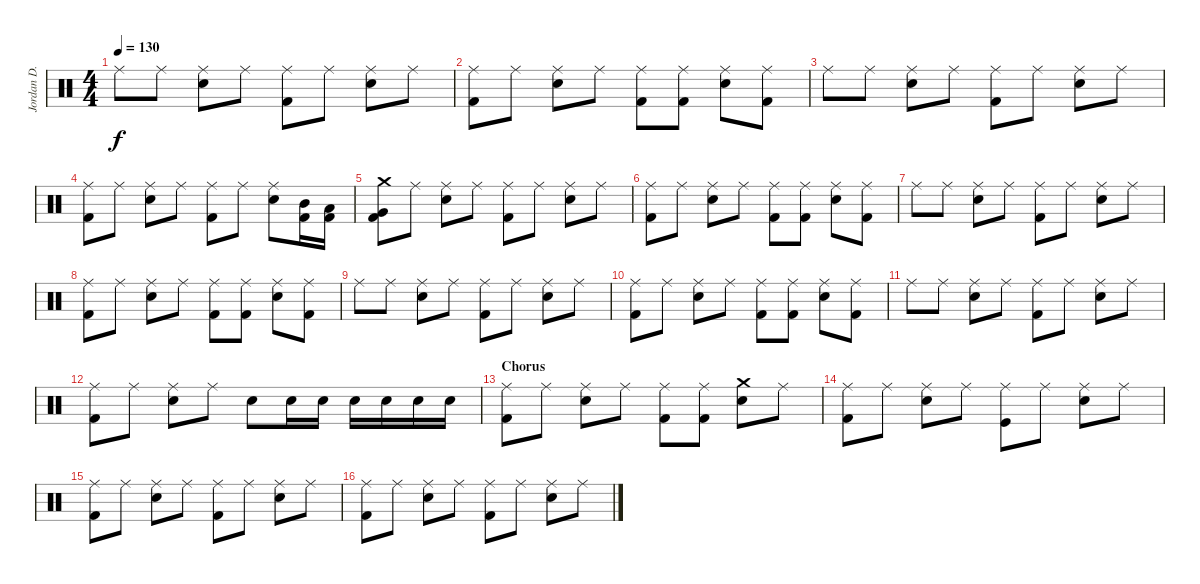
\track ("Jordan D. Samolesky" "Jordan D. ") {instrument percussion}
\staff {score}
\articulation defaults
\ts (4 4)
\tempo 130
\clef neutral
\ks c "Ride (middle)".8{dy f} "Ride (middle)".8
("Electric Snare (hit)" "Ride (middle)").8 "Ride (middle)".8 ("Ride (middle)" "Kick (hit) 2").8 "Ride (middle)".8 ("Electric Snare (hit)" "Ride (middle)").8 "Ride (middle)".8 |
("Ride (middle)" "Kick (hit) 2").8 "Ride (middle)".8 ("Electric Snare (hit)" "Ride (middle)").8 "Ride (middle)".8 ("Ride (middle)" "Kick (hit) 2").8 ("Ride (middle)" "Kick (hit) 2").8 ("Electric Snare (hit)" "Ride (middle)").8 ("Ride (middle)" "Kick (hit) 2").8 |
"Ride (middle)".8 "Ride (middle)".8 ("Electric Snare (hit)" "Ride (middle)").8 "Ride (middle)".8 ("Ride (middle)" "Kick (hit) 2").8 "Ride (middle)".8 ("Electric Snare (hit)" "Ride (middle)").8 "Ride (middle)".8 |
("Ride (middle)" "Kick (hit) 2").8 "Ride (middle)".8 ("Electric Snare (hit)" "Ride (middle)").8 "Ride (middle)".8 ("Ride (middle)" "Kick (hit) 2").8 "Ride (middle)".8 ("Electric Snare (hit)" "Ride (middle)").8 ("Mid Tom (hit)" "Kick (hit) 2").16 ("Low Tom (hit)" "Kick (hit) 2").16 |
("Crash medium (hit)" "Very Low Tom (hit)" "Kick (hit) 2").8 "Ride (middle)".8 ("Electric Snare (hit)" "Ride (middle)").8 "Ride (middle)".8 ("Ride (middle)" "Kick (hit) 2").8 "Ride (middle)".8 ("Electric Snare (hit)" "Ride (middle)").8 "Ride (middle)".8 |
("Ride (middle)" "Kick (hit) 2").8 "Ride (middle)".8 ("Electric Snare (hit)" "Ride (middle)").8 "Ride (middle)".8 ("Ride (middle)" "Kick (hit) 2").8 ("Ride (middle)" "Kick (hit) 2").8 ("Electric Snare (hit)" "Ride (middle)").8 ("Ride (middle)" "Kick (hit) 2").8 |
"Ride (middle)".8 "Ride (middle)".8 ("Electric Snare (hit)" "Ride (middle)").8 "Ride (middle)".8 ("Ride (middle)" "Kick (hit) 2").8 "Ride (middle)".8 ("Electric Snare (hit)" "Ride (middle)").8 "Ride (middle)".8 |
("Ride (middle)" "Kick (hit) 2").8 "Ride (middle)".8 ("Electric Snare (hit)" "Ride (middle)").8 "Ride (middle)".8 ("Ride (middle)" "Kick (hit) 2").8 ("Ride (middle)" "Kick (hit) 2").8 ("Electric Snare (hit)" "Ride (middle)").8 ("Ride (middle)" "Kick (hit) 2").8 |
"Ride (middle)".8 "Ride (middle)".8 ("Electric Snare (hit)" "Ride (middle)").8 "Ride (middle)".8 ("Ride (middle)" "Kick (hit) 2").8 "Ride (middle)".8 ("Electric Snare (hit)" "Ride (middle)").8 "Ride (middle)".8 |
("Ride (middle)" "Kick (hit) 2").8 "Ride (middle)".8 ("Electric Snare (hit)" "Ride (middle)").8 "Ride (middle)".8 ("Ride (middle)" "Kick (hit) 2").8 ("Ride (middle)" "Kick (hit) 2").8 ("Electric Snare (hit)" "Ride (middle)").8 ("Ride (middle)" "Kick (hit) 2").8 |
"Ride (middle)".8 "Ride (middle)".8 ("Electric Snare (hit)" "Ride (middle)").8 "Ride (middle)".8 ("Ride (middle)" "Kick (hit) 2").8 "Ride (middle)".8 ("Electric Snare (hit)" "Ride (middle)").8 "Ride (middle)".8 |
("Ride (middle)" "Kick (hit) 2").8 "Ride (middle)".8 ("Electric Snare (hit)" "Ride (middle)").8 "Ride (middle)".8 "Electric Snare (hit)".8 "Electric Snare (hit)".16 "Electric Snare (hit)".16 "Electric Snare (hit)".16 "Electric Snare (hit)".16 "Electric Snare (hit)".16 "Electric Snare (hit)".16 |
\section ("" "Chorus")
("Ride (middle)" "Kick (hit) 2").8 "Ride (middle)".8 ("Electric Snare (hit)" "Ride (middle)").8 "Ride (middle)".8 ("Ride (middle)" "Kick (hit) 2").8 ("Ride (middle)" "Kick (hit) 2").8 ("Crash medium (hit)" "Electric Snare (hit)").8 "Ride (middle)".8 |
("Ride (middle)" "Kick (hit) 2").8 "Ride (middle)".8 ("Electric Snare (hit)" "Ride (middle)").8 "Ride (middle)".8 ("Ride (middle)" "Kick (hit)").8 "Ride (middle)".8 ("Electric Snare (hit)" "Ride (middle)").8 "Ride (middle)".8 |
("Ride (middle)" "Kick (hit) 2").8 "Ride (middle)".8 ("Electric Snare (hit)" "Ride (middle)").8 "Ride (middle)".8 ("Ride (middle)" "Kick (hit) 2").8 "Ride (middle)".8 ("Electric Snare (hit)" "Ride (middle)").8 "Ride (middle)".8 |
("Ride (middle)" "Kick (hit) 2").8 "Ride (middle)".8 ("Electric Snare (hit)" "Ride (middle)").8 "Ride (middle)".8 ("Ride (middle)" "Kick (hit) 2").8 "Ride (middle)".8 ("Electric Snare (hit)" "Ride (middle)").8 "Ride (middle)".8
